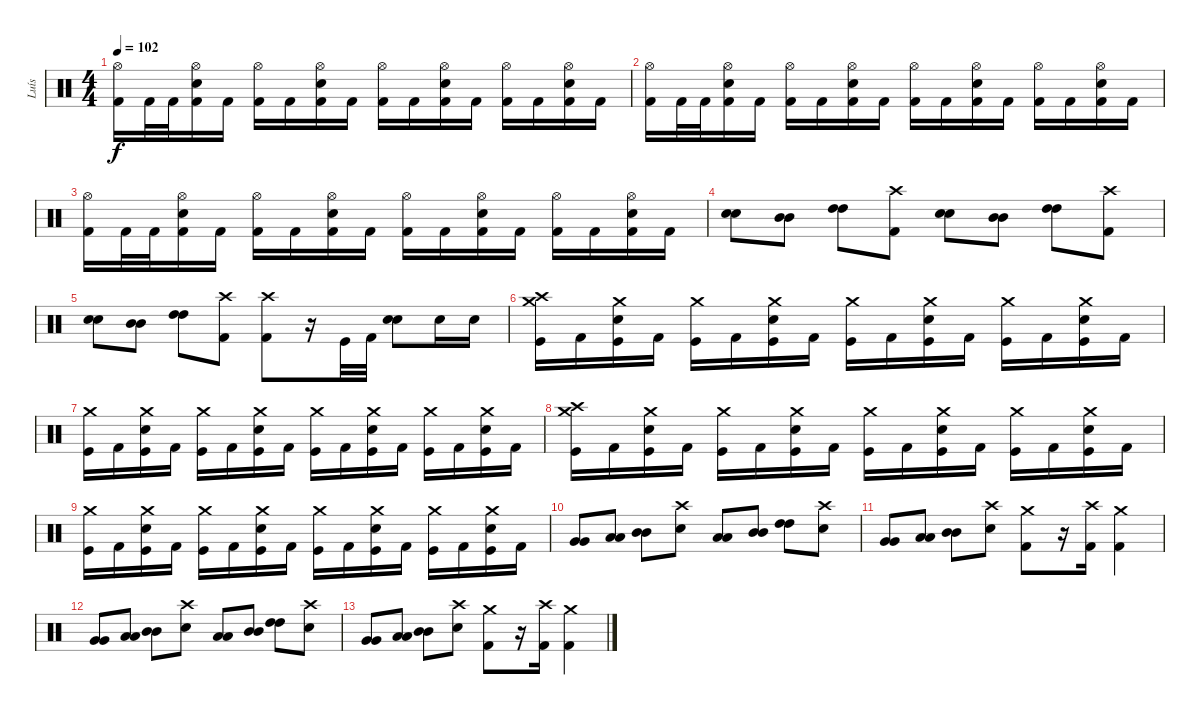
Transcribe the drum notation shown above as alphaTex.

\track ("Luís" "Luís") {instrument percussion}
\staff {score}
\articulation defaults
\ts (4 4)
\tempo 102
\clef neutral
\ks c
("Hi-Hat (open)" "Kick (hit) 2").16{dy f} "Kick (hit) 2".32 "Kick (hit) 2".32 ("Hi-Hat (open)" "Snare (hit) 2" "Kick (hit) 2").16 "Kick (hit) 2".16 ("Hi-Hat (open)" "Kick (hit) 2").16 "Kick (hit) 2".16 ("Hi-Hat (open)" "Snare (hit) 2" "Kick (hit) 2").16 "Kick (hit) 2".16 ("Hi-Hat (open)" "Kick (hit) 2").16 "Kick (hit) 2".16 ("Hi-Hat (open)" "Snare (hit) 2" "Kick (hit) 2").16 "Kick (hit) 2".16 ("Hi-Hat (open)" "Kick (hit) 2").16 "Kick (hit) 2".16 ("Hi-Hat (open)" "Snare (hit) 2" "Kick (hit) 2").16 "Kick (hit) 2".16 |
("Hi-Hat (open)" "Kick (hit) 2").16 "Kick (hit) 2".32 "Kick (hit) 2".32 ("Hi-Hat (open)" "Snare (hit) 2" "Kick (hit) 2").16 "Kick (hit) 2".16 ("Hi-Hat (open)" "Kick (hit) 2").16 "Kick (hit) 2".16 ("Hi-Hat (open)" "Snare (hit) 2" "Kick (hit) 2").16 "Kick (hit) 2".16 ("Hi-Hat (open)" "Kick (hit) 2").16 "Kick (hit) 2".16 ("Hi-Hat (open)" "Snare (hit) 2" "Kick (hit) 2").16 "Kick (hit) 2".16 ("Hi-Hat (open)" "Kick (hit) 2").16 "Kick (hit) 2".16 ("Hi-Hat (open)" "Snare (hit) 2" "Kick (hit) 2").16 "Kick (hit) 2".16 |
("Hi-Hat (open)" "Kick (hit) 2").16 "Kick (hit) 2".32 "Kick (hit) 2".32 ("Hi-Hat (open)" "Snare (hit) 2" "Kick (hit) 2").16 "Kick (hit) 2".16 ("Hi-Hat (open)" "Kick (hit) 2").16 "Kick (hit) 2".16 ("Hi-Hat (open)" "Snare (hit) 2" "Kick (hit) 2").16 "Kick (hit) 2".16 ("Hi-Hat (open)" "Kick (hit) 2").16 "Kick (hit) 2".16 ("Hi-Hat (open)" "Snare (hit) 2" "Kick (hit) 2").16 "Kick (hit) 2".16 ("Hi-Hat (open)" "Kick (hit) 2").16 "Kick (hit) 2".16 ("Hi-Hat (open)" "Snare (hit) 2" "Kick (hit) 2").16 "Kick (hit) 2".16 |
("Snare (hit) 2" "Snare (hit) 2").8 ("Mid Tom (hit)" "Mid Tom (hit)").8 ("High Tom (hit)" "High Tom (hit)").8 ("Crash high (hit)" "Kick (hit) 2").8 ("Snare (hit) 2" "Snare (hit) 2").8 ("Mid Tom (hit)" "Mid Tom (hit)").8 ("High Tom (hit)" "High Tom (hit)").8 ("Crash high (hit)" "Kick (hit) 2").8 |
("Snare (hit) 2" "Snare (hit) 2").8 ("Mid Tom (hit)" "Mid Tom (hit)").8 ("High Tom (hit)" "High Tom (hit)").8 ("Crash high (hit)" "Kick (hit) 2").8 ("Crash high (hit)" "Kick (hit) 2").8 r.16 "Kick (hit)".32 "Kick (hit) 2".32 ("Snare (hit) 2" "Snare (hit) 2").8 "Snare (hit) 2".16 "Snare (hit) 2".16 |
("Crash medium (hit)" "Crash high (hit)" "Kick (hit)").16 "Kick (hit) 2".16 ("Crash medium (hit)" "Snare (hit) 2" "Kick (hit)").16 "Kick (hit) 2".16 ("Crash medium (hit)" "Kick (hit)").16 "Kick (hit) 2".16 ("Crash medium (hit)" "Snare (hit) 2" "Kick (hit)").16 "Kick (hit) 2".16 ("Crash medium (hit)" "Kick (hit)").16 "Kick (hit) 2".16 ("Crash medium (hit)" "Snare (hit) 2" "Kick (hit)").16 "Kick (hit) 2".16 ("Crash medium (hit)" "Kick (hit)").16 "Kick (hit) 2".16 ("Crash medium (hit)" "Snare (hit) 2" "Kick (hit)").16 "Kick (hit) 2".16 |
("Crash medium (hit)" "Kick (hit)").16 "Kick (hit) 2".16 ("Crash medium (hit)" "Snare (hit) 2" "Kick (hit)").16 "Kick (hit) 2".16 ("Crash medium (hit)" "Kick (hit)").16 "Kick (hit) 2".16 ("Crash medium (hit)" "Snare (hit) 2" "Kick (hit)").16 "Kick (hit) 2".16 ("Crash medium (hit)" "Kick (hit)").16 "Kick (hit) 2".16 ("Crash medium (hit)" "Snare (hit) 2" "Kick (hit)").16 "Kick (hit) 2".16 ("Crash medium (hit)" "Kick (hit)").16 "Kick (hit) 2".16 ("Crash medium (hit)" "Snare (hit) 2" "Kick (hit)").16 "Kick (hit) 2".16 |
("Crash medium (hit)" "Crash high (hit)" "Kick (hit)").16 "Kick (hit) 2".16 ("Crash medium (hit)" "Snare (hit) 2" "Kick (hit)").16 "Kick (hit) 2".16 ("Crash medium (hit)" "Kick (hit)").16 "Kick (hit) 2".16 ("Crash medium (hit)" "Snare (hit) 2" "Kick (hit)").16 "Kick (hit) 2".16 ("Crash medium (hit)" "Kick (hit)").16 "Kick (hit) 2".16 ("Crash medium (hit)" "Snare (hit) 2" "Kick (hit)").16 "Kick (hit) 2".16 ("Crash medium (hit)" "Kick (hit)").16 "Kick (hit) 2".16 ("Crash medium (hit)" "Snare (hit) 2" "Kick (hit)").16 "Kick (hit) 2".16 |
("Crash medium (hit)" "Kick (hit)").16 "Kick (hit) 2".16 ("Crash medium (hit)" "Snare (hit) 2" "Kick (hit)").16 "Kick (hit) 2".16 ("Crash medium (hit)" "Kick (hit)").16 "Kick (hit) 2".16 ("Crash medium (hit)" "Snare (hit) 2" "Kick (hit)").16 "Kick (hit) 2".16 ("Crash medium (hit)" "Kick (hit)").16 "Kick (hit) 2".16 ("Crash medium (hit)" "Snare (hit) 2" "Kick (hit)").16 "Kick (hit) 2".16 ("Crash medium (hit)" "Kick (hit)").16 "Kick (hit) 2".16 ("Crash medium (hit)" "Snare (hit) 2" "Kick (hit)").16 "Kick (hit) 2".16 |
("Very Low Tom (hit)" "Very Low Tom (hit)").8 ("Low Tom (hit)" "Low Tom (hit)").8 ("Mid Tom (hit)" "Mid Tom (hit)").8 ("Crash high (hit)" "Snare (hit) 2").8 ("Low Tom (hit)" "Low Tom (hit)").8 ("Mid Tom (hit)" "Mid Tom (hit)").8 ("High Tom (hit)" "High Tom (hit)").8 ("Crash high (hit)" "Snare (hit) 2").8 |
("Very Low Tom (hit)" "Very Low Tom (hit)").8 ("Low Tom (hit)" "Low Tom (hit)").8 ("Mid Tom (hit)" "Mid Tom (hit)").8 ("Crash high (hit)" "Snare (hit) 2").8 ("Crash medium (hit)" "Kick (hit) 2").8 r.16 ("Crash high (hit)" "Kick (hit) 2").16 ("Crash medium (hit)" "Kick (hit) 2").4 |
("Very Low Tom (hit)" "Very Low Tom (hit)").8 ("Low Tom (hit)" "Low Tom (hit)").8 ("Mid Tom (hit)" "Mid Tom (hit)").8 ("Crash high (hit)" "Snare (hit) 2").8 ("Low Tom (hit)" "Low Tom (hit)").8 ("Mid Tom (hit)" "Mid Tom (hit)").8 ("High Tom (hit)" "High Tom (hit)").8 ("Crash high (hit)" "Snare (hit) 2").8 |
("Very Low Tom (hit)" "Very Low Tom (hit)").8 ("Low Tom (hit)" "Low Tom (hit)").8 ("Mid Tom (hit)" "Mid Tom (hit)").8 ("Crash high (hit)" "Snare (hit) 2").8 ("Crash medium (hit)" "Kick (hit) 2").8 r.16 ("Crash high (hit)" "Kick (hit) 2").16 ("Crash medium (hit)" "Kick (hit) 2").4
